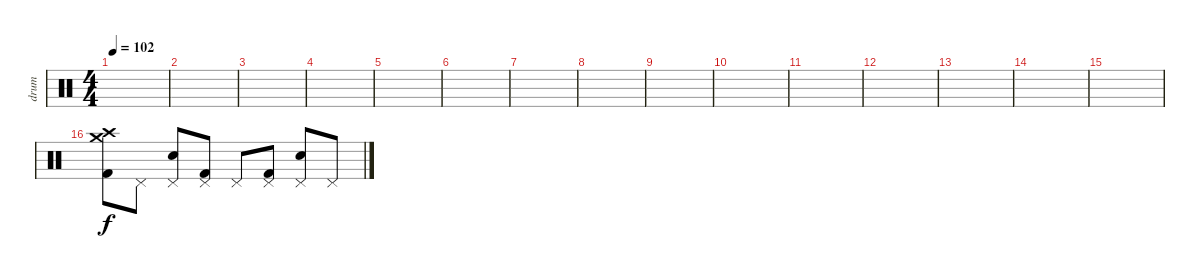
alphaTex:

\track ("drum " "drum ") {instrument percussion}
\staff {score}
\articulation defaults
\ts (4 4)
\tempo 102
\clef neutral
\ks c
|
|
|
|
|
|
|
|
|
|
|
|
|
|
|
("Crash medium (hit)" "Crash high (hit)" "Kick (hit) 2").8 "Pedal Hi-Hat (hit)".8 ("Pedal Hi-Hat (hit)" "Snare (hit) 2").8 ("Pedal Hi-Hat (hit)" "Kick (hit) 2").8 "Pedal Hi-Hat (hit)".8 ("Pedal Hi-Hat (hit)" "Kick (hit) 2").8 ("Pedal Hi-Hat (hit)" "Snare (hit) 2").8 "Pedal Hi-Hat (hit)".8
